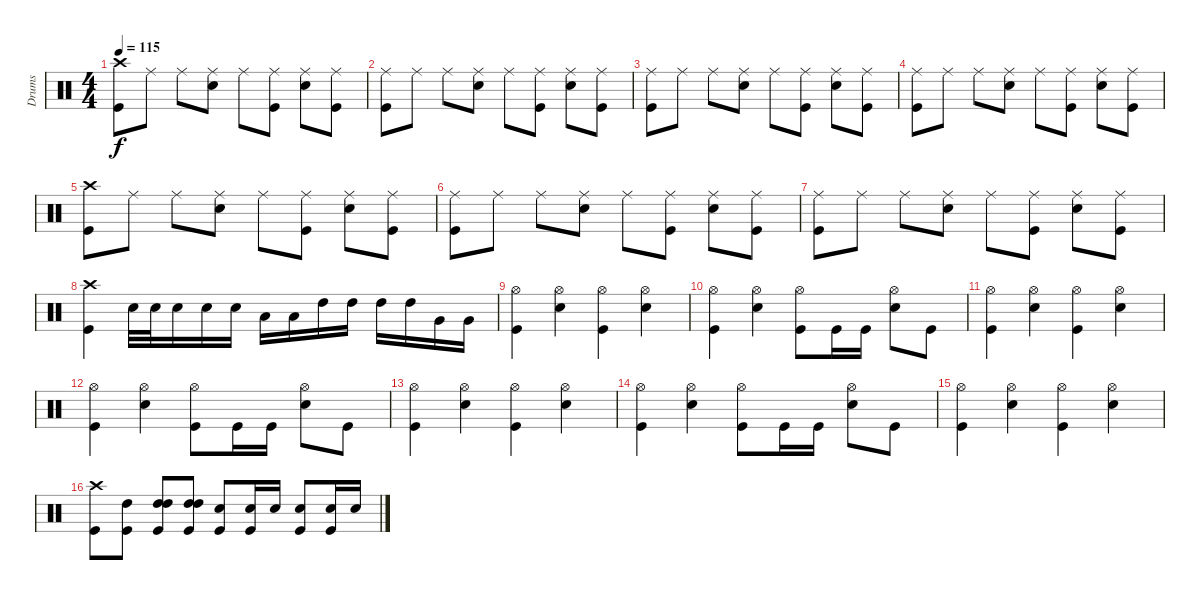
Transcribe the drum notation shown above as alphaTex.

\track ("Drums" "Drums") {instrument percussion}
\staff {score}
\articulation defaults
\ts (4 4)
\tempo 115
\clef neutral
\ks c
("Kick (hit)" "Crash high (hit)").8{dy f} "Ride (middle)".8 "Ride (middle)".8 ("Snare (hit) 2" "Ride (middle)").8 "Ride (middle)".8 ("Kick (hit)" "Ride (middle)").8 ("Snare (hit) 2" "Ride (middle)").8 ("Kick (hit)" "Ride (middle)").8 |
("Kick (hit)" "Ride (middle)").8 "Ride (middle)".8 "Ride (middle)".8 ("Snare (hit) 2" "Ride (middle)").8 "Ride (middle)".8 ("Kick (hit)" "Ride (middle)").8 ("Snare (hit) 2" "Ride (middle)").8 ("Kick (hit)" "Ride (middle)").8 |
("Kick (hit)" "Ride (middle)").8 "Ride (middle)".8 "Ride (middle)".8 ("Snare (hit) 2" "Ride (middle)").8 "Ride (middle)".8 ("Kick (hit)" "Ride (middle)").8 ("Snare (hit) 2" "Ride (middle)").8 ("Kick (hit)" "Ride (middle)").8 |
("Kick (hit)" "Ride (middle)").8 "Ride (middle)".8 "Ride (middle)".8 ("Snare (hit) 2" "Ride (middle)").8 "Ride (middle)".8 ("Kick (hit)" "Ride (middle)").8 ("Snare (hit) 2" "Ride (middle)").8 ("Kick (hit)" "Ride (middle)").8 |
("Kick (hit)" "Crash high (hit)").8 "Ride (middle)".8 "Ride (middle)".8 ("Snare (hit) 2" "Ride (middle)").8 "Ride (middle)".8 ("Kick (hit)" "Ride (middle)").8 ("Snare (hit) 2" "Ride (middle)").8 ("Kick (hit)" "Ride (middle)").8 |
("Kick (hit)" "Ride (middle)").8 "Ride (middle)".8 "Ride (middle)".8 ("Snare (hit) 2" "Ride (middle)").8 "Ride (middle)".8 ("Kick (hit)" "Ride (middle)").8 ("Snare (hit) 2" "Ride (middle)").8 ("Kick (hit)" "Ride (middle)").8 |
("Kick (hit)" "Ride (middle)").8 "Ride (middle)".8 "Ride (middle)".8 ("Snare (hit) 2" "Ride (middle)").8 "Ride (middle)".8 ("Kick (hit)" "Ride (middle)").8 ("Snare (hit) 2" "Ride (middle)").8 ("Kick (hit)" "Ride (middle)").8 |
("Kick (hit)" "Crash high (hit)").4 "Snare (hit) 2".32 "Snare (hit) 2".32 "Snare (hit) 2".16 "Snare (hit) 2".16 "Snare (hit) 2".16 "Low Tom (hit)".16 "Low Tom (hit)".16 "High Tom (hit)".16 "High Tom (hit)".16 "High Tom (hit)".16 "High Tom (hit)".16 "Very Low Tom (hit)".16 "Very Low Tom (hit)".16 |
("Kick (hit)" "Hi-Hat (open)").4 ("Snare (hit) 2" "Hi-Hat (open)").4 ("Kick (hit)" "Hi-Hat (open)").4 ("Snare (hit) 2" "Hi-Hat (open)").4 |
("Kick (hit)" "Hi-Hat (open)").4 ("Snare (hit) 2" "Hi-Hat (open)").4 ("Kick (hit)" "Hi-Hat (open)").8 "Kick (hit)".16 "Kick (hit)".16 ("Snare (hit) 2" "Hi-Hat (open)").8 "Kick (hit)".8 |
("Kick (hit)" "Hi-Hat (open)").4 ("Snare (hit) 2" "Hi-Hat (open)").4 ("Kick (hit)" "Hi-Hat (open)").4 ("Snare (hit) 2" "Hi-Hat (open)").4 |
("Kick (hit)" "Hi-Hat (open)").4 ("Snare (hit) 2" "Hi-Hat (open)").4 ("Kick (hit)" "Hi-Hat (open)").8 "Kick (hit)".16 "Kick (hit)".16 ("Snare (hit) 2" "Hi-Hat (open)").8 "Kick (hit)".8 |
("Kick (hit)" "Hi-Hat (open)").4 ("Snare (hit) 2" "Hi-Hat (open)").4 ("Kick (hit)" "Hi-Hat (open)").4 ("Snare (hit) 2" "Hi-Hat (open)").4 |
("Kick (hit)" "Hi-Hat (open)").4 ("Snare (hit) 2" "Hi-Hat (open)").4 ("Kick (hit)" "Hi-Hat (open)").8 "Kick (hit)".16 "Kick (hit)".16 ("Snare (hit) 2" "Hi-Hat (open)").8 "Kick (hit)".8 |
("Kick (hit)" "Hi-Hat (open)").4 ("Snare (hit) 2" "Hi-Hat (open)").4 ("Kick (hit)" "Hi-Hat (open)").4 ("Snare (hit) 2" "Hi-Hat (open)").4 |
("Kick (hit)" "Crash high (hit)").8 ("Kick (hit)" "High Tom (hit)").8 ("Kick (hit)" "High Tom (hit)" "High Tom (hit)").8 ("Kick (hit)" "High Tom (hit)" "High Tom (hit)").8 ("Kick (hit)" "Snare (hit) 2").8 ("Kick (hit)" "Snare (hit) 2").16 "Snare (hit) 2".16 ("Kick (hit)" "Snare (hit) 2").8 ("Kick (hit)" "Snare (hit) 2").16 "Snare (hit) 2".16
